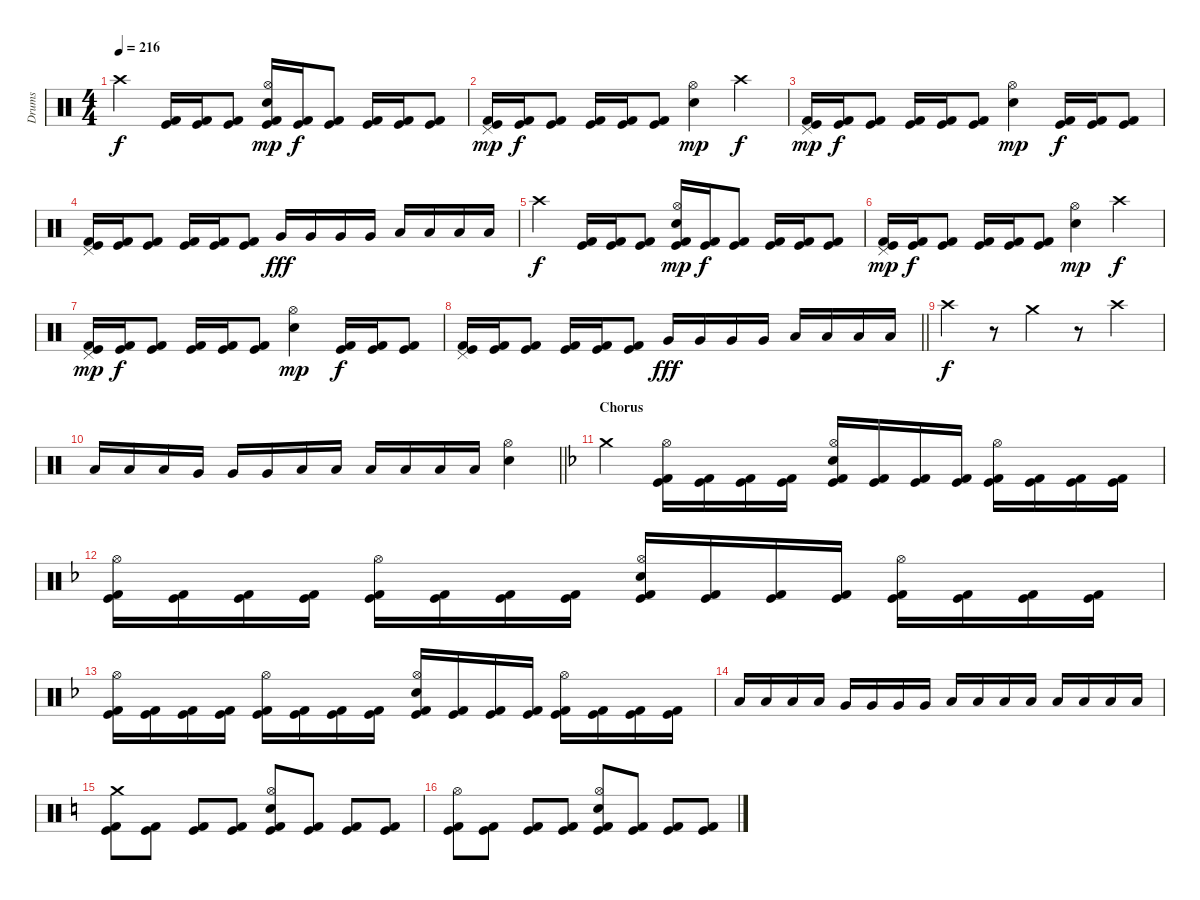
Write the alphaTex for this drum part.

\track ("Drums" "Drums") {instrument percussion}
\staff {score}
\articulation defaults
\ts (4 4)
\tempo 216
\clef neutral
\ks c "Crash high (hit)".4{dy f}
("Kick (hit)" "Kick (hit) 2").16 ("Kick (hit)" "Kick (hit) 2").16 ("Kick (hit)" "Kick (hit) 2").8 ("Hi-Hat (open)" "Electric Snare (hit)" "Kick (hit)" "Kick (hit) 2").16{dy mp} ("Kick (hit)" "Kick (hit) 2").16{dy f} ("Kick (hit)" "Kick (hit) 2").8 ("Kick (hit)" "Kick (hit) 2").16 ("Kick (hit)" "Kick (hit) 2").16 ("Kick (hit)" "Kick (hit) 2").8 |
("Pedal Hi-Hat (hit)" "Kick (hit)" "Kick (hit) 2").16{dy mp} ("Kick (hit)" "Kick (hit) 2").16{dy f} ("Kick (hit)" "Kick (hit) 2").8 ("Kick (hit)" "Kick (hit) 2").16 ("Kick (hit)" "Kick (hit) 2").16 ("Kick (hit)" "Kick (hit) 2").8 ("Hi-Hat (open)" "Electric Snare (hit)").4{dy mp} "Crash high (hit)".4{dy f} |
("Pedal Hi-Hat (hit)" "Kick (hit)" "Kick (hit) 2").16{dy mp} ("Kick (hit)" "Kick (hit) 2").16{dy f} ("Kick (hit)" "Kick (hit) 2").8 ("Kick (hit)" "Kick (hit) 2").16 ("Kick (hit)" "Kick (hit) 2").16 ("Kick (hit)" "Kick (hit) 2").8 ("Hi-Hat (open)" "Electric Snare (hit)").4{dy mp} ("Kick (hit)" "Kick (hit) 2").16{dy f} ("Kick (hit)" "Kick (hit) 2").16 ("Kick (hit)" "Kick (hit) 2").8 |
("Pedal Hi-Hat (hit)" "Kick (hit)" "Kick (hit) 2").16 ("Kick (hit)" "Kick (hit) 2").16 ("Kick (hit)" "Kick (hit) 2").8 ("Kick (hit)" "Kick (hit) 2").16 ("Kick (hit)" "Kick (hit) 2").16 ("Kick (hit)" "Kick (hit) 2").8 "Very Low Tom (hit)".16{dy fff} "Very Low Tom (hit)".16 "Very Low Tom (hit)".16 "Very Low Tom (hit)".16 "Low Floor Tom (hit)".16 "Low Floor Tom (hit)".16 "Low Floor Tom (hit)".16 "Low Floor Tom (hit)".16 |
"Crash high (hit)".4{dy f} ("Kick (hit)" "Kick (hit) 2").16 ("Kick (hit)" "Kick (hit) 2").16 ("Kick (hit)" "Kick (hit) 2").8 ("Hi-Hat (open)" "Electric Snare (hit)" "Kick (hit)" "Kick (hit) 2").16{dy mp} ("Kick (hit)" "Kick (hit) 2").16{dy f} ("Kick (hit)" "Kick (hit) 2").8 ("Kick (hit)" "Kick (hit) 2").16 ("Kick (hit)" "Kick (hit) 2").16 ("Kick (hit)" "Kick (hit) 2").8 |
("Pedal Hi-Hat (hit)" "Kick (hit)" "Kick (hit) 2").16{dy mp} ("Kick (hit)" "Kick (hit) 2").16{dy f} ("Kick (hit)" "Kick (hit) 2").8 ("Kick (hit)" "Kick (hit) 2").16 ("Kick (hit)" "Kick (hit) 2").16 ("Kick (hit)" "Kick (hit) 2").8 ("Hi-Hat (open)" "Electric Snare (hit)").4{dy mp} "Crash high (hit)".4{dy f} |
("Pedal Hi-Hat (hit)" "Kick (hit)" "Kick (hit) 2").16{dy mp} ("Kick (hit)" "Kick (hit) 2").16{dy f} ("Kick (hit)" "Kick (hit) 2").8 ("Kick (hit)" "Kick (hit) 2").16 ("Kick (hit)" "Kick (hit) 2").16 ("Kick (hit)" "Kick (hit) 2").8 ("Hi-Hat (open)" "Electric Snare (hit)").4{dy mp} ("Kick (hit)" "Kick (hit) 2").16{dy f} ("Kick (hit)" "Kick (hit) 2").16 ("Kick (hit)" "Kick (hit) 2").8 |
\barLineRight lightlight
("Pedal Hi-Hat (hit)" "Kick (hit)" "Kick (hit) 2").16 ("Kick (hit)" "Kick (hit) 2").16 ("Kick (hit)" "Kick (hit) 2").8 ("Kick (hit)" "Kick (hit) 2").16 ("Kick (hit)" "Kick (hit) 2").16 ("Kick (hit)" "Kick (hit) 2").8 "Very Low Tom (hit)".16{dy fff} "Very Low Tom (hit)".16 "Very Low Tom (hit)".16 "Very Low Tom (hit)".16 "Low Floor Tom (hit)".16 "Low Floor Tom (hit)".16 "Low Floor Tom (hit)".16 "Low Floor Tom (hit)".16 |
"Crash high (hit)".4{dy f} r.8 "Crash medium (hit)".4 r.8 "Crash high (hit)".4 |
\barLineRight lightlight "Low Tom (hit)".16 "Low Tom (hit)".16 "Low Tom (hit)".16 "Very Low Tom (hit)".16 "Very Low Tom (hit)".16 "Very Low Tom (hit)".16 "Low Tom (hit)".16 "Low Tom (hit)".16 "Low Tom (hit)".16 "Low Floor Tom (hit)".16 "Low Floor Tom (hit)".16 "Low Floor Tom (hit)".16
("Hi-Hat (open)" "Electric Snare (hit)").4 |
\section ("" "Chorus")
\ks f "Crash medium (hit)".4
("Hi-Hat (open)" "Kick (hit)" "Kick (hit) 2").16 ("Kick (hit)" "Kick (hit) 2").16 ("Kick (hit)" "Kick (hit) 2").16 ("Kick (hit)" "Kick (hit) 2").16 ("Hi-Hat (open)" "Electric Snare (hit)" "Kick (hit)" "Kick (hit) 2").16 ("Kick (hit)" "Kick (hit) 2").16 ("Kick (hit)" "Kick (hit) 2").16 ("Kick (hit)" "Kick (hit) 2").16 ("Hi-Hat (open)" "Kick (hit)" "Kick (hit) 2").16 ("Kick (hit)" "Kick (hit) 2").16 ("Kick (hit)" "Kick (hit) 2").16 ("Kick (hit)" "Kick (hit) 2").16 |
("Hi-Hat (open)" "Kick (hit)" "Kick (hit) 2").16 ("Kick (hit)" "Kick (hit) 2").16 ("Kick (hit)" "Kick (hit) 2").16 ("Kick (hit)" "Kick (hit) 2").16 ("Hi-Hat (open)" "Kick (hit)" "Kick (hit) 2").16 ("Kick (hit)" "Kick (hit) 2").16 ("Kick (hit)" "Kick (hit) 2").16 ("Kick (hit)" "Kick (hit) 2").16 ("Hi-Hat (open)" "Electric Snare (hit)" "Kick (hit)" "Kick (hit) 2").16 ("Kick (hit)" "Kick (hit) 2").16 ("Kick (hit)" "Kick (hit) 2").16 ("Kick (hit)" "Kick (hit) 2").16 ("Hi-Hat (open)" "Kick (hit)" "Kick (hit) 2").16 ("Kick (hit)" "Kick (hit) 2").16 ("Kick (hit)" "Kick (hit) 2").16 ("Kick (hit)" "Kick (hit) 2").16 |
("Hi-Hat (open)" "Kick (hit)" "Kick (hit) 2").16 ("Kick (hit)" "Kick (hit) 2").16 ("Kick (hit)" "Kick (hit) 2").16 ("Kick (hit)" "Kick (hit) 2").16 ("Hi-Hat (open)" "Kick (hit)" "Kick (hit) 2").16 ("Kick (hit)" "Kick (hit) 2").16 ("Kick (hit)" "Kick (hit) 2").16 ("Kick (hit)" "Kick (hit) 2").16 ("Hi-Hat (open)" "Electric Snare (hit)" "Kick (hit)" "Kick (hit) 2").16 ("Kick (hit)" "Kick (hit) 2").16 ("Kick (hit)" "Kick (hit) 2").16 ("Kick (hit)" "Kick (hit) 2").16 ("Hi-Hat (open)" "Kick (hit)" "Kick (hit) 2").16 ("Kick (hit)" "Kick (hit) 2").16 ("Kick (hit)" "Kick (hit) 2").16 ("Kick (hit)" "Kick (hit) 2").16 |
"Low Tom (hit)".16 "Low Tom (hit)".16 "Low Tom (hit)".16 "Low Tom (hit)".16 "Very Low Tom (hit)".16 "Very Low Tom (hit)".16 "Very Low Tom (hit)".16 "Very Low Tom (hit)".16 "Low Tom (hit)".16 "Low Tom (hit)".16 "Low Tom (hit)".16 "Low Tom (hit)".16 "Low Floor Tom (hit)".16 "Low Floor Tom (hit)".16 "Low Floor Tom (hit)".16 "Low Floor Tom (hit)".16 |
\ks c
("Crash medium (hit)" "Kick (hit)" "Kick (hit) 2").8 ("Kick (hit)" "Kick (hit) 2").8 ("Kick (hit)" "Kick (hit) 2").8 ("Kick (hit)" "Kick (hit) 2").8 ("Hi-Hat (open)" "Electric Snare (hit)" "Kick (hit)" "Kick (hit) 2").8 ("Kick (hit)" "Kick (hit) 2").8 ("Kick (hit)" "Kick (hit) 2").8 ("Kick (hit)" "Kick (hit) 2").8 |
("Hi-Hat (open)" "Kick (hit)" "Kick (hit) 2").8 ("Kick (hit)" "Kick (hit) 2").8 ("Kick (hit)" "Kick (hit) 2").8 ("Kick (hit)" "Kick (hit) 2").8 ("Hi-Hat (open)" "Electric Snare (hit)" "Kick (hit)" "Kick (hit) 2").8 ("Kick (hit)" "Kick (hit) 2").8 ("Kick (hit)" "Kick (hit) 2").8 ("Kick (hit)" "Kick (hit) 2").8
